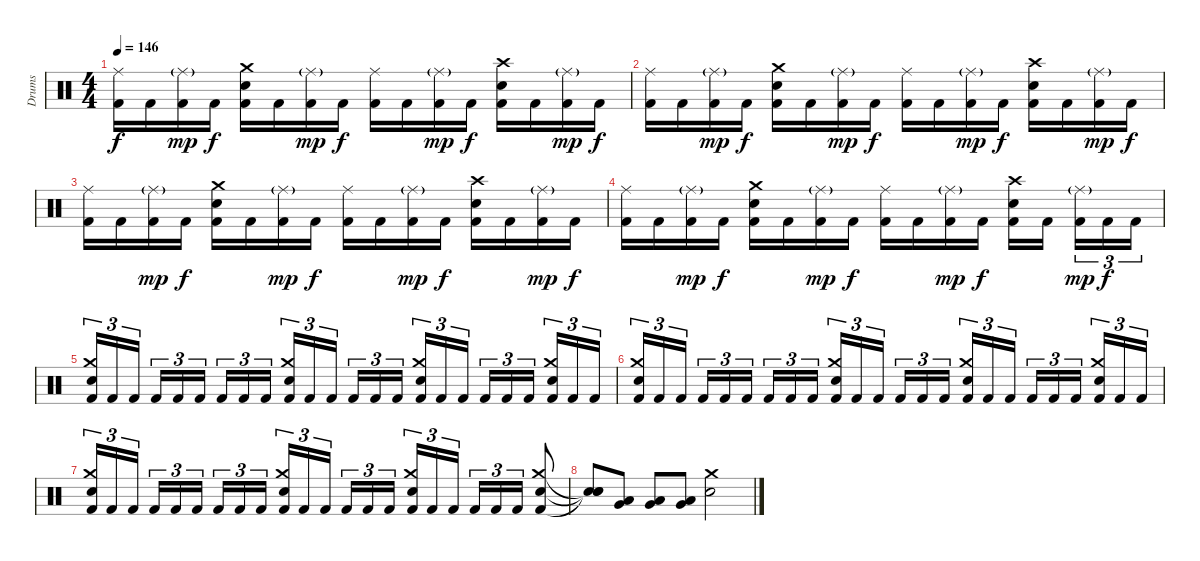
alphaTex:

\track ("Drums" "Drums") {instrument percussion}
\staff {score}
\articulation defaults
\ts (4 4)
\tempo 146
\clef neutral
\ks c
("Ride (middle)" "Kick (hit) 2").16{dy f} "Kick (hit) 2".16 ("Ride (middle)"{g} "Kick (hit) 2").16{dy mp} "Kick (hit) 2".16{dy f} ("Crash medium (hit)" "Snare (hit) 2" "Kick (hit) 2").16 "Kick (hit) 2".16 ("Ride (middle)"{g} "Kick (hit) 2").16{dy mp} "Kick (hit) 2".16{dy f} ("Ride (middle)" "Kick (hit) 2").16 "Kick (hit) 2".16 ("Ride (middle)"{g} "Kick (hit) 2").16{dy mp} "Kick (hit) 2".16{dy f} ("Crash high (hit)" "Snare (hit) 2" "Kick (hit) 2").16 "Kick (hit) 2".16 ("Ride (middle)"{g} "Kick (hit) 2").16{dy mp} "Kick (hit) 2".16{dy f} |
("Ride (middle)" "Kick (hit) 2").16 "Kick (hit) 2".16 ("Ride (middle)"{g} "Kick (hit) 2").16{dy mp} "Kick (hit) 2".16{dy f} ("Crash medium (hit)" "Snare (hit) 2" "Kick (hit) 2").16 "Kick (hit) 2".16 ("Ride (middle)"{g} "Kick (hit) 2").16{dy mp} "Kick (hit) 2".16{dy f} ("Ride (middle)" "Kick (hit) 2").16 "Kick (hit) 2".16 ("Ride (middle)"{g} "Kick (hit) 2").16{dy mp} "Kick (hit) 2".16{dy f} ("Crash high (hit)" "Snare (hit) 2" "Kick (hit) 2").16 "Kick (hit) 2".16 ("Ride (middle)"{g} "Kick (hit) 2").16{dy mp} "Kick (hit) 2".16{dy f} |
("Ride (middle)" "Kick (hit) 2").16 "Kick (hit) 2".16 ("Ride (middle)"{g} "Kick (hit) 2").16{dy mp} "Kick (hit) 2".16{dy f} ("Crash medium (hit)" "Snare (hit) 2" "Kick (hit) 2").16 "Kick (hit) 2".16 ("Ride (middle)"{g} "Kick (hit) 2").16{dy mp} "Kick (hit) 2".16{dy f} ("Ride (middle)" "Kick (hit) 2").16 "Kick (hit) 2".16 ("Ride (middle)"{g} "Kick (hit) 2").16{dy mp} "Kick (hit) 2".16{dy f} ("Crash high (hit)" "Snare (hit) 2" "Kick (hit) 2").16 "Kick (hit) 2".16 ("Ride (middle)"{g} "Kick (hit) 2").16{dy mp} "Kick (hit) 2".16{dy f} |
("Ride (middle)" "Kick (hit) 2").16 "Kick (hit) 2".16 ("Ride (middle)"{g} "Kick (hit) 2").16{dy mp} "Kick (hit) 2".16{dy f} ("Crash medium (hit)" "Snare (hit) 2" "Kick (hit) 2").16 "Kick (hit) 2".16 ("Ride (middle)"{g} "Kick (hit) 2").16{dy mp} "Kick (hit) 2".16{dy f} ("Ride (middle)" "Kick (hit) 2").16 "Kick (hit) 2".16 ("Ride (middle)"{g} "Kick (hit) 2").16{dy mp} "Kick (hit) 2".16{dy f} ("Crash high (hit)" "Snare (hit) 2" "Kick (hit) 2").16 "Kick (hit) 2".16 ("Ride (middle)"{g} "Kick (hit) 2").16{tu (3 2) dy mp} "Kick (hit) 2".16{tu (3 2) dy f} "Kick (hit) 2".16{tu (3 2)} |
("Crash medium (hit)" "Snare (hit) 2" "Kick (hit) 2").16{tu (3 2)} "Kick (hit) 2".16{tu (3 2)} "Kick (hit) 2".16{tu (3 2)} "Kick (hit) 2".16{tu (3 2)} "Kick (hit) 2".16{tu (3 2)} "Kick (hit) 2".16{tu (3 2)} "Kick (hit) 2".16{tu (3 2)} "Kick (hit) 2".16{tu (3 2)} "Kick (hit) 2".16{tu (3 2)} ("Crash medium (hit)" "Snare (hit) 2" "Kick (hit) 2").16{tu (3 2)} "Kick (hit) 2".16{tu (3 2)} "Kick (hit) 2".16{tu (3 2)} "Kick (hit) 2".16{tu (3 2)} "Kick (hit) 2".16{tu (3 2)} "Kick (hit) 2".16{tu (3 2)} ("Crash medium (hit)" "Snare (hit) 2" "Kick (hit) 2").16{tu (3 2)} "Kick (hit) 2".16{tu (3 2)} "Kick (hit) 2".16{tu (3 2)} "Kick (hit) 2".16{tu (3 2)} "Kick (hit) 2".16{tu (3 2)} "Kick (hit) 2".16{tu (3 2)} ("Crash medium (hit)" "Snare (hit) 2" "Kick (hit) 2").16{tu (3 2)} "Kick (hit) 2".16{tu (3 2)} "Kick (hit) 2".16{tu (3 2)} |
("Crash medium (hit)" "Snare (hit) 2" "Kick (hit) 2").16{tu (3 2)} "Kick (hit) 2".16{tu (3 2)} "Kick (hit) 2".16{tu (3 2)} "Kick (hit) 2".16{tu (3 2)} "Kick (hit) 2".16{tu (3 2)} "Kick (hit) 2".16{tu (3 2)} "Kick (hit) 2".16{tu (3 2)} "Kick (hit) 2".16{tu (3 2)} "Kick (hit) 2".16{tu (3 2)} ("Crash medium (hit)" "Snare (hit) 2" "Kick (hit) 2").16{tu (3 2)} "Kick (hit) 2".16{tu (3 2)} "Kick (hit) 2".16{tu (3 2)} "Kick (hit) 2".16{tu (3 2)} "Kick (hit) 2".16{tu (3 2)} "Kick (hit) 2".16{tu (3 2)} ("Crash medium (hit)" "Snare (hit) 2" "Kick (hit) 2").16{tu (3 2)} "Kick (hit) 2".16{tu (3 2)} "Kick (hit) 2".16{tu (3 2)} "Kick (hit) 2".16{tu (3 2)} "Kick (hit) 2".16{tu (3 2)} "Kick (hit) 2".16{tu (3 2)} ("Crash medium (hit)" "Snare (hit) 2" "Kick (hit) 2").16{tu (3 2)} "Kick (hit) 2".16{tu (3 2)} "Kick (hit) 2".16{tu (3 2)} |
("Crash medium (hit)" "Snare (hit) 2" "Kick (hit) 2").16{tu (3 2)} "Kick (hit) 2".16{tu (3 2)} "Kick (hit) 2".16{tu (3 2)} "Kick (hit) 2".16{tu (3 2)} "Kick (hit) 2".16{tu (3 2)} "Kick (hit) 2".16{tu (3 2)} "Kick (hit) 2".16{tu (3 2)} "Kick (hit) 2".16{tu (3 2)} "Kick (hit) 2".16{tu (3 2)} ("Crash medium (hit)" "Snare (hit) 2" "Kick (hit) 2").16{tu (3 2)} "Kick (hit) 2".16{tu (3 2)} "Kick (hit) 2".16{tu (3 2)} "Kick (hit) 2".16{tu (3 2)} "Kick (hit) 2".16{tu (3 2)} "Kick (hit) 2".16{tu (3 2)} ("Crash medium (hit)" "Snare (hit) 2" "Kick (hit) 2").16{tu (3 2)} "Kick (hit) 2".16{tu (3 2)} "Kick (hit) 2".16{tu (3 2)} "Kick (hit) 2".16{tu (3 2)} "Kick (hit) 2".16{tu (3 2)} "Kick (hit) 2".16{tu (3 2)} ("Crash medium (hit)" "Snare (hit) 2" "Kick (hit) 2").8 |
("Snare (hit)"{t} "Snare (hit)"{t} "Snare (hit)"{t}).8 ("Low Tom (hit)" "Very Low Tom (hit)").8 ("Low Tom (hit)" "Very Low Tom (hit)").8 ("Very Low Tom (hit)" "Low Floor Tom (hit)").8 ("Crash medium (hit)" "Snare (hit) 2").2
